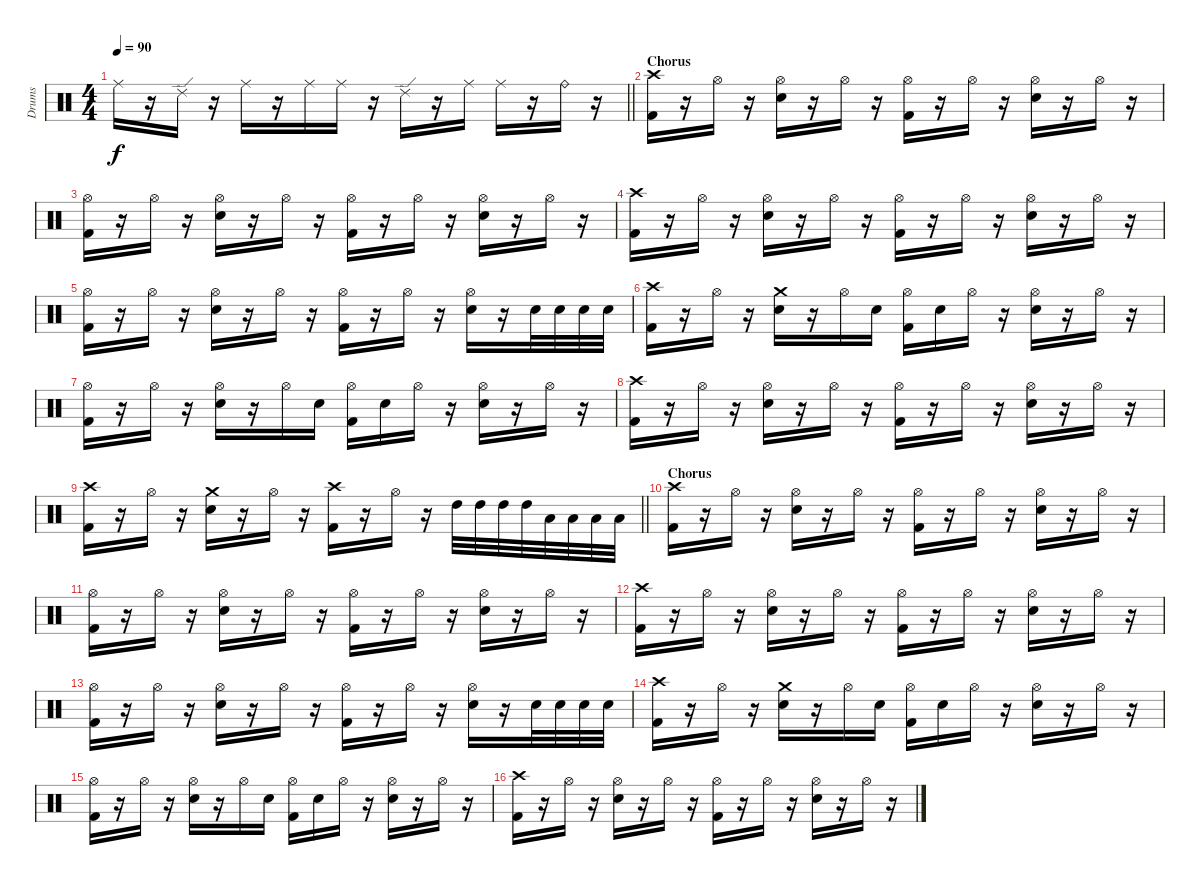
\track ("Drums" "Drums") {instrument percussion}
\staff {score}
\articulation defaults
\ts (4 4)
\tempo 90
\clef neutral
\barLineRight lightlight
\ks c "Ride (middle)".16{dy f}
r.16 "Ride (edge) 2".16 r.16 "Ride (middle)".16 r.16 "Ride (middle)".16 "Ride (middle)".16 r.16 "Ride (edge) 2".16 r.16 "Ride (middle)".16 "Ride (middle)".16 r.16 "Ride (bell)".16 r.16 |
\section ("" "Chorus")
("Crash high (hit)" "Kick (hit) 2").16 r.16 "Hi-Hat (open)".16 r.16 ("Hi-Hat (open)" "Snare (hit) 2").16 r.16 "Hi-Hat (open)".16 r.16 ("Hi-Hat (open)" "Kick (hit) 2").16 r.16 "Hi-Hat (open)".16 r.16 ("Hi-Hat (open)" "Snare (hit) 2").16 r.16 "Hi-Hat (open)".16 r.16 |
("Hi-Hat (open)" "Kick (hit) 2").16 r.16 "Hi-Hat (open)".16 r.16 ("Hi-Hat (open)" "Snare (hit) 2").16 r.16 "Hi-Hat (open)".16 r.16 ("Hi-Hat (open)" "Kick (hit) 2").16 r.16 "Hi-Hat (open)".16 r.16 ("Hi-Hat (open)" "Snare (hit) 2").16 r.16 "Hi-Hat (open)".16 r.16 |
("Crash high (hit)" "Kick (hit) 2").16 r.16 "Hi-Hat (open)".16 r.16 ("Hi-Hat (open)" "Snare (hit) 2").16 r.16 "Hi-Hat (open)".16 r.16 ("Hi-Hat (open)" "Kick (hit) 2").16 r.16 "Hi-Hat (open)".16 r.16 ("Hi-Hat (open)" "Snare (hit) 2").16 r.16 "Hi-Hat (open)".16 r.16 |
("Hi-Hat (open)" "Kick (hit) 2").16 r.16 "Hi-Hat (open)".16 r.16 ("Hi-Hat (open)" "Snare (hit) 2").16 r.16 "Hi-Hat (open)".16 r.16 ("Hi-Hat (open)" "Kick (hit) 2").16 r.16 "Hi-Hat (open)".16 r.16 ("Hi-Hat (open)" "Snare (hit) 2").16 r.16 "Snare (hit) 2".32 "Snare (hit) 2".32 "Snare (hit) 2".32 "Snare (hit) 2".32 |
("Crash high (hit)" "Kick (hit) 2").16 r.16 "Hi-Hat (open)".16 r.16 ("Crash medium (hit)" "Snare (hit) 2").16 r.16 "Hi-Hat (open)".16 "Snare (hit) 2".16 ("Hi-Hat (open)" "Kick (hit) 2").16 "Snare (hit) 2".16 "Hi-Hat (open)".16 r.16 ("Hi-Hat (open)" "Snare (hit) 2").16 r.16 "Hi-Hat (open)".16 r.16 |
("Hi-Hat (open)" "Kick (hit) 2").16 r.16 "Hi-Hat (open)".16 r.16 ("Hi-Hat (open)" "Snare (hit) 2").16 r.16 "Hi-Hat (open)".16 "Snare (hit) 2".16 ("Hi-Hat (open)" "Kick (hit) 2").16 "Snare (hit) 2".16 "Hi-Hat (open)".16 r.16 ("Hi-Hat (open)" "Snare (hit) 2").16 r.16 "Hi-Hat (open)".16 r.16 |
("Crash high (hit)" "Kick (hit) 2").16 r.16 "Hi-Hat (open)".16 r.16 ("Hi-Hat (open)" "Snare (hit) 2").16 r.16 "Hi-Hat (open)".16 r.16 ("Hi-Hat (open)" "Kick (hit) 2").16 r.16 "Hi-Hat (open)".16 r.16 ("Hi-Hat (open)" "Snare (hit) 2").16 r.16 "Hi-Hat (open)".16 r.16 |
\barLineRight lightlight
("Crash high (hit)" "Kick (hit) 2").16 r.16 "Hi-Hat (open)".16 r.16 ("Crash medium (hit)" "Snare (hit) 2").16 r.16 "Hi-Hat (open)".16 r.16 ("Crash high (hit)" "Kick (hit) 2").16 r.16 "Hi-Hat (open)".16 r.16 "High Tom (hit)".32 "High Tom (hit)".32 "High Tom (hit)".32 "High Tom (hit)".32 "Low Tom (hit)".32 "Low Tom (hit)".32 "Low Tom (hit)".32 "Low Tom (hit)".32 |
\section ("" "Chorus")
("Crash high (hit)" "Kick (hit) 2").16 r.16 "Hi-Hat (open)".16 r.16 ("Hi-Hat (open)" "Snare (hit) 2").16 r.16 "Hi-Hat (open)".16 r.16 ("Hi-Hat (open)" "Kick (hit) 2").16 r.16 "Hi-Hat (open)".16 r.16 ("Hi-Hat (open)" "Snare (hit) 2").16 r.16 "Hi-Hat (open)".16 r.16 |
("Hi-Hat (open)" "Kick (hit) 2").16 r.16 "Hi-Hat (open)".16 r.16 ("Hi-Hat (open)" "Snare (hit) 2").16 r.16 "Hi-Hat (open)".16 r.16 ("Hi-Hat (open)" "Kick (hit) 2").16 r.16 "Hi-Hat (open)".16 r.16 ("Hi-Hat (open)" "Snare (hit) 2").16 r.16 "Hi-Hat (open)".16 r.16 |
("Crash high (hit)" "Kick (hit) 2").16 r.16 "Hi-Hat (open)".16 r.16 ("Hi-Hat (open)" "Snare (hit) 2").16 r.16 "Hi-Hat (open)".16 r.16 ("Hi-Hat (open)" "Kick (hit) 2").16 r.16 "Hi-Hat (open)".16 r.16 ("Hi-Hat (open)" "Snare (hit) 2").16 r.16 "Hi-Hat (open)".16 r.16 |
("Hi-Hat (open)" "Kick (hit) 2").16 r.16 "Hi-Hat (open)".16 r.16 ("Hi-Hat (open)" "Snare (hit) 2").16 r.16 "Hi-Hat (open)".16 r.16 ("Hi-Hat (open)" "Kick (hit) 2").16 r.16 "Hi-Hat (open)".16 r.16 ("Hi-Hat (open)" "Snare (hit) 2").16 r.16 "Snare (hit) 2".32 "Snare (hit) 2".32 "Snare (hit) 2".32 "Snare (hit) 2".32 |
("Crash high (hit)" "Kick (hit) 2").16 r.16 "Hi-Hat (open)".16 r.16 ("Crash medium (hit)" "Snare (hit) 2").16 r.16 "Hi-Hat (open)".16 "Snare (hit) 2".16 ("Hi-Hat (open)" "Kick (hit) 2").16 "Snare (hit) 2".16 "Hi-Hat (open)".16 r.16 ("Hi-Hat (open)" "Snare (hit) 2").16 r.16 "Hi-Hat (open)".16 r.16 |
("Hi-Hat (open)" "Kick (hit) 2").16 r.16 "Hi-Hat (open)".16 r.16 ("Hi-Hat (open)" "Snare (hit) 2").16 r.16 "Hi-Hat (open)".16 "Snare (hit) 2".16 ("Hi-Hat (open)" "Kick (hit) 2").16 "Snare (hit) 2".16 "Hi-Hat (open)".16 r.16 ("Hi-Hat (open)" "Snare (hit) 2").16 r.16 "Hi-Hat (open)".16 r.16 |
("Crash high (hit)" "Kick (hit) 2").16 r.16 "Hi-Hat (open)".16 r.16 ("Hi-Hat (open)" "Snare (hit) 2").16 r.16 "Hi-Hat (open)".16 r.16 ("Hi-Hat (open)" "Kick (hit) 2").16 r.16 "Hi-Hat (open)".16 r.16 ("Hi-Hat (open)" "Snare (hit) 2").16 r.16 "Hi-Hat (open)".16 r.16
